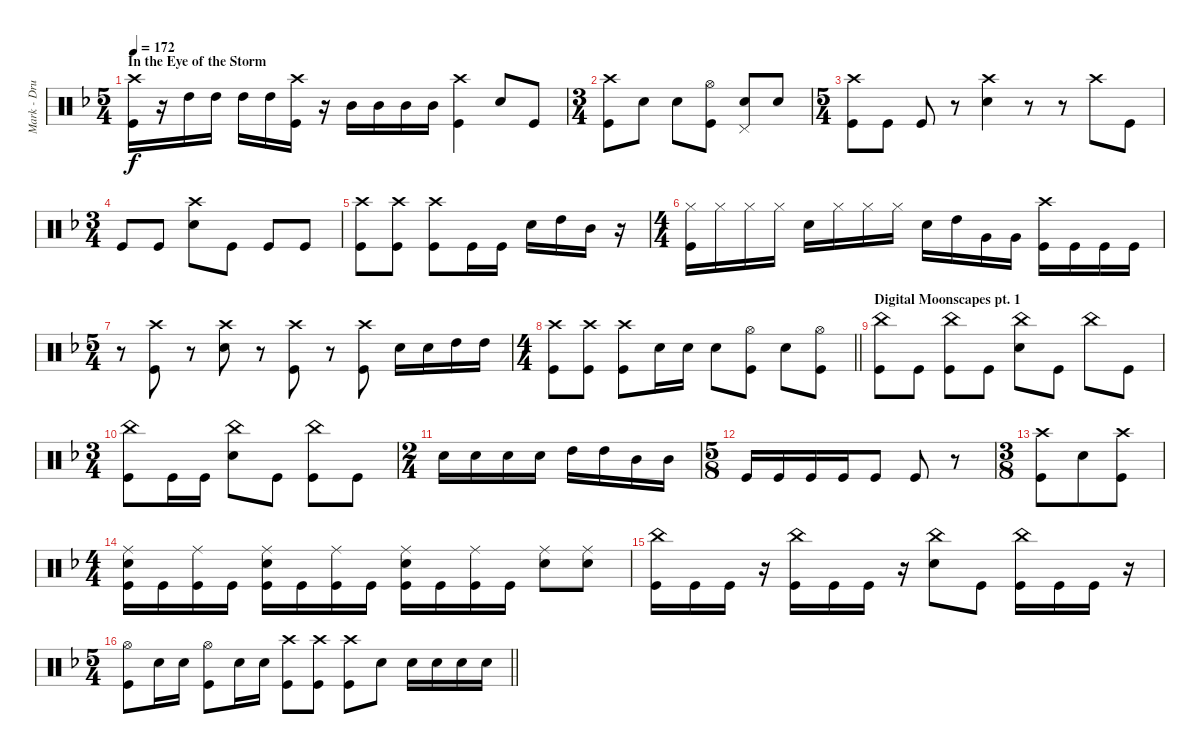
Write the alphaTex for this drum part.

\track ("Mark - Drums" "Mark - Dru") {instrument percussion}
\staff {score}
\articulation defaults
\ts (5 4)
\section ("" "In the Eye of the Storm")
\tempo 172
\clef neutral
\ks dminor
("Kick (hit)" "Crash high (hit)").16{dy f} r.16 "High Tom (hit)".16 "High Tom (hit)".16 "High Tom (hit)".16 "High Tom (hit)".16 ("Kick (hit)" "Crash high (hit)").16 r.16 "Mid Tom (hit)".16 "Mid Tom (hit)".16 "Mid Tom (hit)".16 "Mid Tom (hit)".16 ("Kick (hit)" "Crash high (hit)").4 "Snare (hit) 2".8 "Kick (hit)".8 |
\ts (3 4)
("Kick (hit)" "Crash high (hit)").8 "Snare (hit) 2".8 "Snare (hit) 2".8 ("Kick (hit)" "Hi-Hat (open)").8 ("Snare (hit) 2" "Pedal Hi-Hat (hit)").8 "Snare (hit) 2".8 |
\ts (5 4)
("Kick (hit)" "Crash high (hit)").8 "Kick (hit)".8 "Kick (hit)".8 r.8 ("Snare (hit) 2" "Crash high (hit)").4 r.8 r.8 "Crash high (hit)".8 "Kick (hit)".8 |
\ts (3 4)
"Kick (hit)".8 "Kick (hit)".8 ("Snare (hit) 2" "Crash high (hit)").8 "Kick (hit)".8 "Kick (hit)".8 "Kick (hit)".8 |
("Crash high (hit)" "Kick (hit)").8 ("Crash high (hit)" "Kick (hit)").8 ("Crash high (hit)" "Kick (hit)").8 "Kick (hit)".16 "Kick (hit)".16 "Snare (hit) 2".16 "High Tom (hit)".16 "Mid Tom (hit)".16 r.16 |
\ts (4 4)
("Hi-Hat (closed)" "Kick (hit)").16 "Hi-Hat (closed)".16 "Hi-Hat (closed)".16 "Hi-Hat (closed)".16 "Snare (hit) 2".16 "Hi-Hat (closed)".16 "Hi-Hat (closed)".16 "Hi-Hat (closed)".16 "Snare (hit) 2".16 "High Tom (hit)".16 "Very Low Tom (hit)".16 "Very Low Tom (hit)".16 ("Kick (hit)" "Crash high (hit)").16 "Kick (hit)".16 "Kick (hit)".16 "Kick (hit)".16 |
\ts (5 4)
r.8 ("Kick (hit)" "Crash high (hit)").8 r.8 ("Snare (hit) 2" "Crash high (hit)").8 r.8 ("Kick (hit)" "Crash high (hit)").8 r.8 ("Kick (hit)" "Crash high (hit)").8 "Snare (hit) 2".16 "Snare (hit) 2".16 "High Tom (hit)".16 "High Tom (hit)".16 |
\ts (4 4)
\barLineRight lightlight
("Kick (hit)" "Crash high (hit)").8 ("Kick (hit)" "Crash high (hit)").8 ("Kick (hit)" "Crash high (hit)").8 "Snare (hit) 2".16 "Snare (hit) 2".16 "Snare (hit) 2".8 ("Kick (hit)" "Hi-Hat (open)").8 "Snare (hit) 2".8 ("Kick (hit)" "Hi-Hat (open)").8 |
\section ("" "Digital Moonscapes pt. 1")
("Kick (hit)" "China (hit)").8 "Kick (hit)".8 ("Kick (hit)" "China (hit)").8 "Kick (hit)".8 ("Snare (hit) 2" "China (hit)").8 "Kick (hit)".8 "China (hit)".8 "Kick (hit)".8 |
\ts (3 4)
("Kick (hit)" "China (hit)").8 "Kick (hit)".16 "Kick (hit)".16 ("Snare (hit) 2" "China (hit)").8 "Kick (hit)".8 ("Kick (hit)" "China (hit)").8 "Kick (hit)".8 |
\ts (2 4)
"Snare (hit) 2".16 "Snare (hit) 2".16 "Snare (hit) 2".16 "Snare (hit) 2".16 "High Tom (hit)".16 "High Tom (hit)".16 "Mid Tom (hit)".16 "Mid Tom (hit)".16 |
\ts (5 8)
"Kick (hit)".16 "Kick (hit)".16 "Kick (hit)".16 "Kick (hit)".16 "Kick (hit)".8 "Kick (hit)".8 r.8 |
\ts (3 8)
("Kick (hit)" "Crash high (hit)").8 "Snare (hit) 2".8 ("Kick (hit)" "Crash high (hit)").8 |
\ts (4 4)
("Kick (hit)" "Snare (hit) 2" "Ride (middle)").16 "Kick (hit)".16 ("Kick (hit)" "Ride (middle)").16 "Kick (hit)".16 ("Kick (hit)" "Snare (hit) 2" "Ride (middle)").16 "Kick (hit)".16 ("Kick (hit)" "Ride (middle)").16 "Kick (hit)".16 ("Kick (hit)" "Snare (hit) 2" "Ride (middle)").16 "Kick (hit)".16 ("Kick (hit)" "Ride (middle)").16 "Kick (hit)".16 ("Snare (hit) 2" "Ride (middle)").8 ("Snare (hit) 2" "Ride (middle)").8 |
("Kick (hit)" "China (hit)").16 "Kick (hit)".16 "Kick (hit)".16 r.16 ("Kick (hit)" "China (hit)").16 "Kick (hit)".16 "Kick (hit)".16 r.16 ("Snare (hit) 2" "China (hit)").8 "Kick (hit)".8 ("Kick (hit)" "China (hit)").16 "Kick (hit)".16 "Kick (hit)".16 r.16 |
\ts (5 4)
\barLineRight lightlight
("Kick (hit)" "Hi-Hat (open)").8 "Snare (hit) 2".16 "Snare (hit) 2".16 ("Kick (hit)" "Hi-Hat (open)").8 "Snare (hit) 2".16 "Snare (hit) 2".16 ("Kick (hit)" "Crash high (hit)").8 ("Kick (hit)" "Crash high (hit)").8 ("Kick (hit)" "Crash high (hit)").8 "Snare (hit) 2".8 "Snare (hit) 2".16 "Snare (hit) 2".16 "Snare (hit) 2".16 "Snare (hit) 2".16
